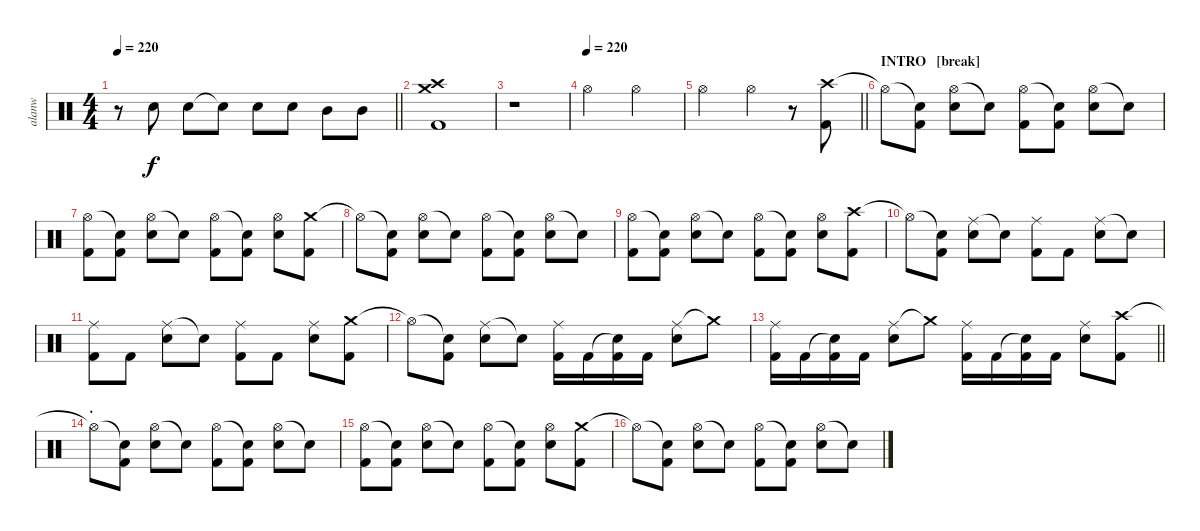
\track ("alanw" "alanw") {instrument percussion}
\staff {score}
\articulation defaults
\ts (4 4)
\tempo 220
\clef neutral
\barLineRight lightlight
\ks c
r.8{dy f} "Electric Snare (hit)".8 "Electric Snare (hit)".8 "Snare (hit)"{t}.8 "Electric Snare (hit)".8 "Electric Snare (hit)".8 "Mid Tom (hit)".8 "Mid Tom (hit)".8 |
("Crash high (hit)" "Crash medium (hit)" "Kick (hit) 2").1 |
r.1 |
\tempo (220)
"Hi-Hat (open)".2 "Hi-Hat (open)".2 |
\barLineRight lightlight "Hi-Hat (open)".2 "Hi-Hat (open)".4
r.8 ("Crash high (hit)" "Kick (hit) 2").8 |
\section ("" "INTRO   [break]")
"Hi-Hat (open)"{t}.8 ("Snare (hit)"{t} "Kick (hit) 2").8 ("Hi-Hat (open)" "Electric Snare (hit)").8 "Snare (hit)"{t}.8 ("Hi-Hat (open)" "Kick (hit) 2").8 ("Snare (hit)"{t} "Kick (hit) 2").8 ("Hi-Hat (open)" "Electric Snare (hit)").8 "Snare (hit)"{t}.8 |
("Hi-Hat (open)" "Kick (hit) 2").8 ("Snare (hit)"{t} "Kick (hit) 2").8 ("Hi-Hat (open)" "Electric Snare (hit)").8 "Snare (hit)"{t}.8 ("Hi-Hat (open)" "Kick (hit) 2").8 ("Snare (hit)"{t} "Kick (hit) 2").8 ("Hi-Hat (open)" "Electric Snare (hit)").8 ("Crash medium (hit)" "Kick (hit) 2").8 |
"Hi-Hat (open)"{t}.8 ("Snare (hit)"{t} "Kick (hit) 2").8 ("Hi-Hat (open)" "Electric Snare (hit)").8 "Snare (hit)"{t}.8 ("Hi-Hat (open)" "Kick (hit) 2").8 ("Snare (hit)"{t} "Kick (hit) 2").8 ("Hi-Hat (open)" "Electric Snare (hit)").8 "Snare (hit)"{t}.8 |
("Hi-Hat (open)" "Kick (hit) 2").8 ("Snare (hit)"{t} "Kick (hit) 2").8 ("Hi-Hat (open)" "Electric Snare (hit)").8 "Snare (hit)"{t}.8 ("Hi-Hat (open)" "Kick (hit) 2").8 ("Snare (hit)"{t} "Kick (hit) 2").8 ("Hi-Hat (open)" "Electric Snare (hit)").8 ("Crash high (hit)" "Kick (hit) 2").8 |
"Hi-Hat (open)"{t}.8 ("Snare (hit)"{t} "Kick (hit) 2").8 ("Ride (middle)" "Electric Snare (hit)").8 "Snare (hit)"{t}.8 ("Ride (middle)" "Kick (hit) 2").8 "Kick (hit) 2".8 ("Ride (middle)" "Electric Snare (hit)").8 "Snare (hit)"{t}.8 |
("Ride (middle)" "Kick (hit) 2").8 "Kick (hit) 2".8 ("Ride (middle)" "Electric Snare (hit)").8 "Snare (hit)"{t}.8 ("Ride (middle)" "Kick (hit) 2").8 "Kick (hit) 2".8 ("Ride (middle)" "Electric Snare (hit)").8 ("Crash medium (hit)" "Kick (hit) 2").8 |
"Hi-Hat (open)"{t}.8 ("Snare (hit)"{t} "Kick (hit) 2").8 ("Ride (middle)" "Electric Snare (hit)").8 "Snare (hit)"{t}.8 ("Ride (middle)" "Kick (hit) 2").16 "Kick (hit) 2".16 ("Snare (hit)"{t} "Kick (hit) 2").16 "Kick (hit) 2".16 ("Ride (middle)" "Electric Snare (hit)").8 "Crash medium (hit)"{t}.8 |
\barLineRight lightlight
("Ride (middle)" "Kick (hit) 2").16 "Kick (hit) 2".16 ("Snare (hit)"{t} "Kick (hit) 2").16 "Kick (hit) 2".16 ("Ride (middle)" "Electric Snare (hit)").8 "Crash medium (hit)"{t}.8 ("Ride (middle)" "Kick (hit) 2").16 "Kick (hit) 2".16 ("Snare (hit)"{t} "Kick (hit) 2").16 "Kick (hit) 2".16 ("Ride (middle)" "Electric Snare (hit)").8 ("Crash high (hit)" "Kick (hit) 2").8 |
\section ("" ".")
"Hi-Hat (open)"{t}.8 ("Snare (hit)"{t} "Kick (hit) 2").8 ("Hi-Hat (open)" "Electric Snare (hit)").8 "Snare (hit)"{t}.8 ("Hi-Hat (open)" "Kick (hit) 2").8 ("Snare (hit)"{t} "Kick (hit) 2").8 ("Hi-Hat (open)" "Electric Snare (hit)").8 "Snare (hit)"{t}.8 |
("Hi-Hat (open)" "Kick (hit) 2").8 ("Snare (hit)"{t} "Kick (hit) 2").8 ("Hi-Hat (open)" "Electric Snare (hit)").8 "Snare (hit)"{t}.8 ("Hi-Hat (open)" "Kick (hit) 2").8 ("Snare (hit)"{t} "Kick (hit) 2").8 ("Hi-Hat (open)" "Electric Snare (hit)").8 ("Crash medium (hit)" "Kick (hit) 2").8 |
"Hi-Hat (open)"{t}.8 ("Snare (hit)"{t} "Kick (hit) 2").8 ("Hi-Hat (open)" "Electric Snare (hit)").8 "Snare (hit)"{t}.8 ("Hi-Hat (open)" "Kick (hit) 2").8 ("Snare (hit)"{t} "Kick (hit) 2").8 ("Hi-Hat (open)" "Electric Snare (hit)").8 "Snare (hit)"{t}.8
